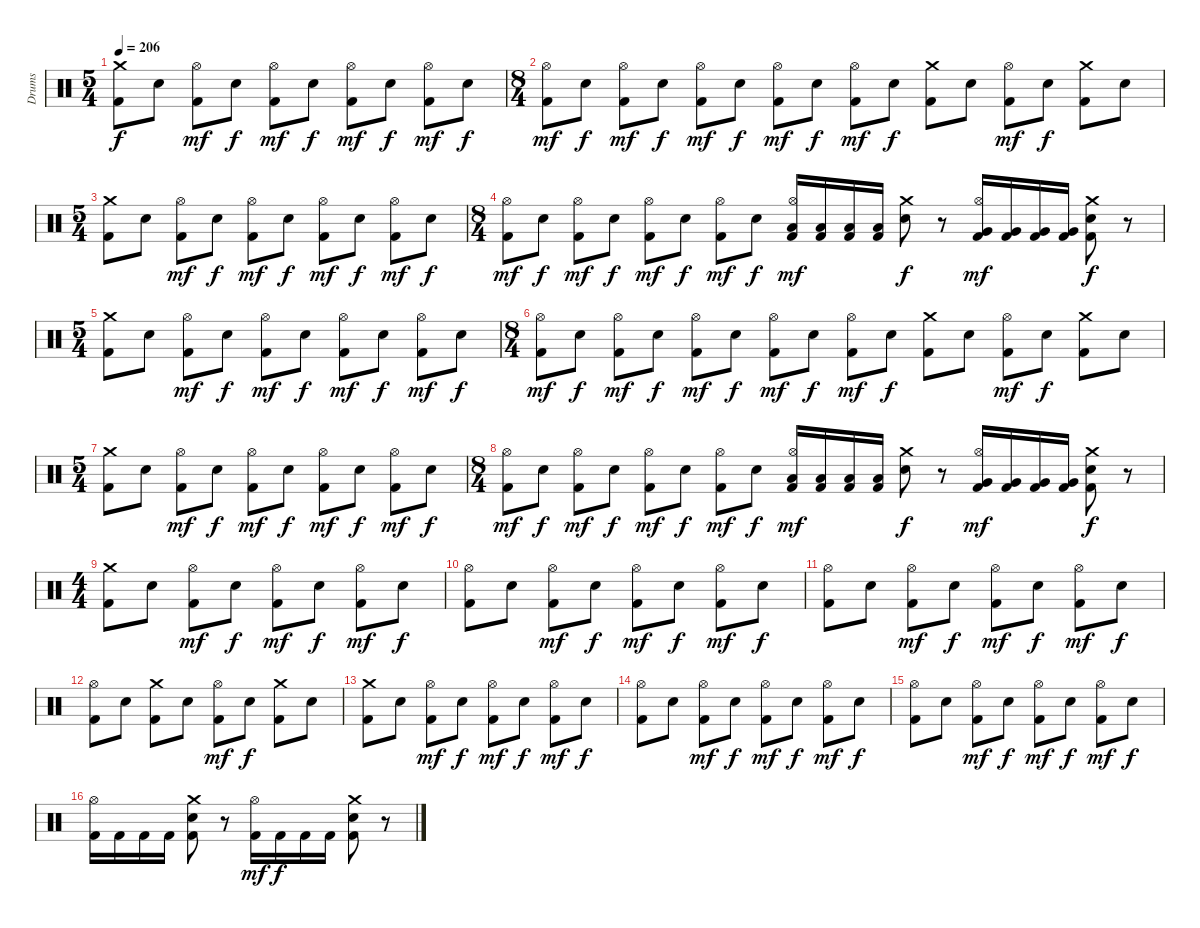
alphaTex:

\track ("Drums" "Drums") {instrument percussion}
\staff {score}
\articulation defaults
\ts (5 4)
\tempo 206
\clef neutral
\ks c
("Crash medium (hit)" "Kick (hit) 2").8{dy f} "Snare (hit) 2".8 ("Hi-Hat (open)" "Kick (hit) 2").8{dy mf} "Snare (hit) 2".8{dy f} ("Hi-Hat (open)" "Kick (hit) 2").8{dy mf} "Snare (hit) 2".8{dy f} ("Hi-Hat (open)" "Kick (hit) 2").8{dy mf} "Snare (hit) 2".8{dy f} ("Hi-Hat (open)" "Kick (hit) 2").8{dy mf} "Snare (hit) 2".8{dy f} |
\ts (8 4)
("Hi-Hat (open)" "Kick (hit) 2").8{dy mf} "Snare (hit) 2".8{dy f} ("Hi-Hat (open)" "Kick (hit) 2").8{dy mf} "Snare (hit) 2".8{dy f} ("Hi-Hat (open)" "Kick (hit) 2").8{dy mf} "Snare (hit) 2".8{dy f} ("Hi-Hat (open)" "Kick (hit) 2").8{dy mf} "Snare (hit) 2".8{dy f} ("Hi-Hat (open)" "Kick (hit) 2").8{dy mf} "Snare (hit) 2".8{dy f} ("Crash medium (hit)" "Kick (hit) 2").8 "Snare (hit) 2".8 ("Hi-Hat (open)" "Kick (hit) 2").8{dy mf} "Snare (hit) 2".8{dy f} ("Crash medium (hit)" "Kick (hit) 2").8 "Snare (hit) 2".8 |
\ts (5 4)
("Crash medium (hit)" "Kick (hit) 2").8 "Snare (hit) 2".8 ("Hi-Hat (open)" "Kick (hit) 2").8{dy mf} "Snare (hit) 2".8{dy f} ("Hi-Hat (open)" "Kick (hit) 2").8{dy mf} "Snare (hit) 2".8{dy f} ("Hi-Hat (open)" "Kick (hit) 2").8{dy mf} "Snare (hit) 2".8{dy f} ("Hi-Hat (open)" "Kick (hit) 2").8{dy mf} "Snare (hit) 2".8{dy f} |
\ts (8 4)
("Hi-Hat (open)" "Kick (hit) 2").8{dy mf} "Snare (hit) 2".8{dy f} ("Hi-Hat (open)" "Kick (hit) 2").8{dy mf} "Snare (hit) 2".8{dy f} ("Hi-Hat (open)" "Kick (hit) 2").8{dy mf} "Snare (hit) 2".8{dy f} ("Hi-Hat (open)" "Kick (hit) 2").8{dy mf} "Snare (hit) 2".8{dy f} ("Hi-Hat (open)" "Low Tom (hit)" "Kick (hit) 2").16{dy mf} ("Low Tom (hit)" "Kick (hit) 2").16 ("Low Tom (hit)" "Kick (hit) 2").16 ("Low Tom (hit)" "Kick (hit) 2").16 ("Crash medium (hit)" "Snare (hit) 2").8{dy f} r.8 ("Hi-Hat (open)" "Very Low Tom (hit)" "Kick (hit) 2").16{dy mf} ("Very Low Tom (hit)" "Kick (hit) 2").16 ("Very Low Tom (hit)" "Kick (hit) 2").16 ("Very Low Tom (hit)" "Kick (hit) 2").16 ("Crash medium (hit)" "Snare (hit) 2" "Kick (hit) 2").8{dy f} r.8 |
\ts (5 4)
("Crash medium (hit)" "Kick (hit) 2").8 "Snare (hit) 2".8 ("Hi-Hat (open)" "Kick (hit) 2").8{dy mf} "Snare (hit) 2".8{dy f} ("Hi-Hat (open)" "Kick (hit) 2").8{dy mf} "Snare (hit) 2".8{dy f} ("Hi-Hat (open)" "Kick (hit) 2").8{dy mf} "Snare (hit) 2".8{dy f} ("Hi-Hat (open)" "Kick (hit) 2").8{dy mf} "Snare (hit) 2".8{dy f} |
\ts (8 4)
("Hi-Hat (open)" "Kick (hit) 2").8{dy mf} "Snare (hit) 2".8{dy f} ("Hi-Hat (open)" "Kick (hit) 2").8{dy mf} "Snare (hit) 2".8{dy f} ("Hi-Hat (open)" "Kick (hit) 2").8{dy mf} "Snare (hit) 2".8{dy f} ("Hi-Hat (open)" "Kick (hit) 2").8{dy mf} "Snare (hit) 2".8{dy f} ("Hi-Hat (open)" "Kick (hit) 2").8{dy mf} "Snare (hit) 2".8{dy f} ("Crash medium (hit)" "Kick (hit) 2").8 "Snare (hit) 2".8 ("Hi-Hat (open)" "Kick (hit) 2").8{dy mf} "Snare (hit) 2".8{dy f} ("Crash medium (hit)" "Kick (hit) 2").8 "Snare (hit) 2".8 |
\ts (5 4)
("Crash medium (hit)" "Kick (hit) 2").8 "Snare (hit) 2".8 ("Hi-Hat (open)" "Kick (hit) 2").8{dy mf} "Snare (hit) 2".8{dy f} ("Hi-Hat (open)" "Kick (hit) 2").8{dy mf} "Snare (hit) 2".8{dy f} ("Hi-Hat (open)" "Kick (hit) 2").8{dy mf} "Snare (hit) 2".8{dy f} ("Hi-Hat (open)" "Kick (hit) 2").8{dy mf} "Snare (hit) 2".8{dy f} |
\ts (8 4)
("Hi-Hat (open)" "Kick (hit) 2").8{dy mf} "Snare (hit) 2".8{dy f} ("Hi-Hat (open)" "Kick (hit) 2").8{dy mf} "Snare (hit) 2".8{dy f} ("Hi-Hat (open)" "Kick (hit) 2").8{dy mf} "Snare (hit) 2".8{dy f} ("Hi-Hat (open)" "Kick (hit) 2").8{dy mf} "Snare (hit) 2".8{dy f} ("Hi-Hat (open)" "Low Tom (hit)" "Kick (hit) 2").16{dy mf} ("Low Tom (hit)" "Kick (hit) 2").16 ("Low Tom (hit)" "Kick (hit) 2").16 ("Low Tom (hit)" "Kick (hit) 2").16 ("Crash medium (hit)" "Snare (hit) 2").8{dy f} r.8 ("Hi-Hat (open)" "Very Low Tom (hit)" "Kick (hit) 2").16{dy mf} ("Very Low Tom (hit)" "Kick (hit) 2").16 ("Very Low Tom (hit)" "Kick (hit) 2").16 ("Very Low Tom (hit)" "Kick (hit) 2").16 ("Crash medium (hit)" "Snare (hit) 2" "Kick (hit) 2").8{dy f} r.8 |
\ts (4 4)
("Crash medium (hit)" "Kick (hit) 2").8 "Snare (hit) 2".8 ("Hi-Hat (open)" "Kick (hit) 2").8{dy mf} "Snare (hit) 2".8{dy f} ("Hi-Hat (open)" "Kick (hit) 2").8{dy mf} "Snare (hit) 2".8{dy f} ("Hi-Hat (open)" "Kick (hit) 2").8{dy mf} "Snare (hit) 2".8{dy f} |
("Hi-Hat (open)" "Kick (hit) 2").8 "Snare (hit) 2".8 ("Hi-Hat (open)" "Kick (hit) 2").8{dy mf} "Snare (hit) 2".8{dy f} ("Hi-Hat (open)" "Kick (hit) 2").8{dy mf} "Snare (hit) 2".8{dy f} ("Hi-Hat (open)" "Kick (hit) 2").8{dy mf} "Snare (hit) 2".8{dy f} |
("Hi-Hat (open)" "Kick (hit) 2").8 "Snare (hit) 2".8 ("Hi-Hat (open)" "Kick (hit) 2").8{dy mf} "Snare (hit) 2".8{dy f} ("Hi-Hat (open)" "Kick (hit) 2").8{dy mf} "Snare (hit) 2".8{dy f} ("Hi-Hat (open)" "Kick (hit) 2").8{dy mf} "Snare (hit) 2".8{dy f} |
("Hi-Hat (open)" "Kick (hit) 2").8 "Snare (hit) 2".8 ("Crash medium (hit)" "Kick (hit) 2").8 "Snare (hit) 2".8 ("Hi-Hat (open)" "Kick (hit) 2").8{dy mf} "Snare (hit) 2".8{dy f} ("Crash medium (hit)" "Kick (hit) 2").8 "Snare (hit) 2".8 |
("Crash medium (hit)" "Kick (hit) 2").8 "Snare (hit) 2".8 ("Hi-Hat (open)" "Kick (hit) 2").8{dy mf} "Snare (hit) 2".8{dy f} ("Hi-Hat (open)" "Kick (hit) 2").8{dy mf} "Snare (hit) 2".8{dy f} ("Hi-Hat (open)" "Kick (hit) 2").8{dy mf} "Snare (hit) 2".8{dy f} |
("Hi-Hat (open)" "Kick (hit) 2").8 "Snare (hit) 2".8 ("Hi-Hat (open)" "Kick (hit) 2").8{dy mf} "Snare (hit) 2".8{dy f} ("Hi-Hat (open)" "Kick (hit) 2").8{dy mf} "Snare (hit) 2".8{dy f} ("Hi-Hat (open)" "Kick (hit) 2").8{dy mf} "Snare (hit) 2".8{dy f} |
("Hi-Hat (open)" "Kick (hit) 2").8 "Snare (hit) 2".8 ("Hi-Hat (open)" "Kick (hit) 2").8{dy mf} "Snare (hit) 2".8{dy f} ("Hi-Hat (open)" "Kick (hit) 2").8{dy mf} "Snare (hit) 2".8{dy f} ("Hi-Hat (open)" "Kick (hit) 2").8{dy mf} "Snare (hit) 2".8{dy f} |
("Hi-Hat (open)" "Kick (hit) 2").16 "Kick (hit) 2".16 "Kick (hit) 2".16 "Kick (hit) 2".16 ("Crash medium (hit)" "Snare (hit) 2" "Kick (hit) 2").8 r.8 ("Hi-Hat (open)" "Kick (hit) 2").16{dy mf} "Kick (hit) 2".16{dy f} "Kick (hit) 2".16 "Kick (hit) 2".16 ("Crash medium (hit)" "Snare (hit) 2" "Kick (hit) 2").8 r.8
